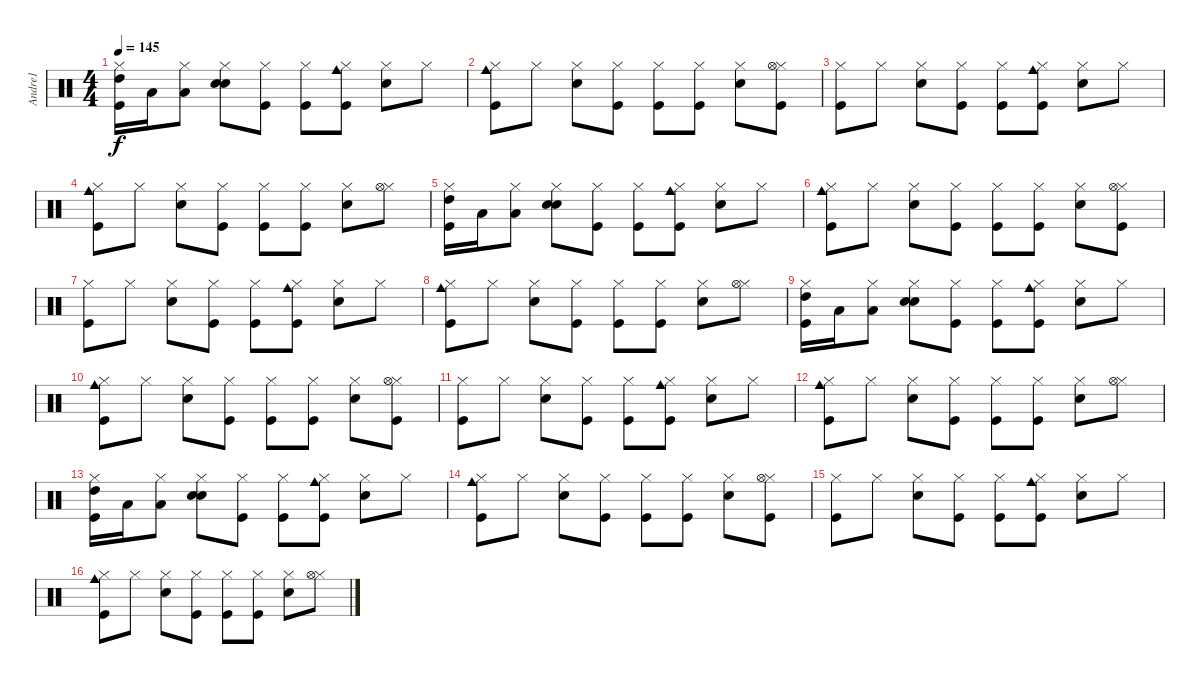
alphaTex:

\track ("Andre1" "Andre1") {instrument percussion}
\staff {score}
\articulation defaults
\ts (4 4)
\tempo 145
\clef neutral
\ks c
("Hi-Hat (closed)" "Kick (hit)" "High Tom (hit)").16{dy f} "Low Tom (hit)".16 ("Hi-Hat (closed)" "Low Floor Tom (hit)").8 ("Snare (hit) 2" "Hand Clap (hit)" "Hi-Hat (closed)").8 ("Hi-Hat (closed)" "Kick (hit)").8 ("Hi-Hat (closed)" "Kick (hit)").8 ("Kick (hit)" "Cowbell medium (hit)" "Hi-Hat (closed)").8 ("Hi-Hat (closed)" "Snare (hit) 2").8 "Hi-Hat (closed)".8 |
("Kick (hit)" "Hi-Hat (closed)" "Cowbell medium (hit)").8 "Hi-Hat (closed)".8 ("Snare (hit) 2" "Hi-Hat (closed)").8 ("Hi-Hat (closed)" "Kick (hit)").8 ("Hi-Hat (closed)" "Kick (hit)").8 ("Kick (hit)" "Hi-Hat (closed)").8 ("Hi-Hat (closed)" "Snare (hit) 2").8 ("Hi-Hat (closed)" "Kick (hit)" "Hi-Hat (open)").8 |
("Kick (hit)" "Hi-Hat (closed)").8 "Hi-Hat (closed)".8 ("Snare (hit) 2" "Hi-Hat (closed)").8 ("Hi-Hat (closed)" "Kick (hit)").8 ("Hi-Hat (closed)" "Kick (hit)").8 ("Cowbell medium (hit)" "Kick (hit)" "Hi-Hat (closed)").8 ("Hi-Hat (closed)" "Snare (hit) 2").8 "Hi-Hat (closed)".8 |
("Kick (hit)" "Cowbell medium (hit)" "Hi-Hat (closed)").8 "Hi-Hat (closed)".8 ("Snare (hit) 2" "Hi-Hat (closed)").8 ("Hi-Hat (closed)" "Kick (hit)").8 ("Hi-Hat (closed)" "Kick (hit)").8 ("Kick (hit)" "Hi-Hat (closed)").8 ("Hi-Hat (closed)" "Snare (hit) 2").8 ("Hi-Hat (closed)" "Hi-Hat (open)").8 |
("Hi-Hat (closed)" "Kick (hit)" "High Tom (hit)").16 "Low Tom (hit)".16 ("Hi-Hat (closed)" "Low Floor Tom (hit)").8 ("Snare (hit) 2" "Hand Clap (hit)" "Hi-Hat (closed)").8 ("Hi-Hat (closed)" "Kick (hit)").8 ("Hi-Hat (closed)" "Kick (hit)").8 ("Kick (hit)" "Cowbell medium (hit)" "Hi-Hat (closed)").8 ("Hi-Hat (closed)" "Snare (hit) 2").8 "Hi-Hat (closed)".8 |
("Kick (hit)" "Hi-Hat (closed)" "Cowbell medium (hit)").8 "Hi-Hat (closed)".8 ("Snare (hit) 2" "Hi-Hat (closed)").8 ("Hi-Hat (closed)" "Kick (hit)").8 ("Hi-Hat (closed)" "Kick (hit)").8 ("Kick (hit)" "Hi-Hat (closed)").8 ("Hi-Hat (closed)" "Snare (hit) 2").8 ("Hi-Hat (closed)" "Kick (hit)" "Hi-Hat (open)").8 |
("Kick (hit)" "Hi-Hat (closed)").8 "Hi-Hat (closed)".8 ("Snare (hit) 2" "Hi-Hat (closed)").8 ("Hi-Hat (closed)" "Kick (hit)").8 ("Hi-Hat (closed)" "Kick (hit)").8 ("Cowbell medium (hit)" "Kick (hit)" "Hi-Hat (closed)").8 ("Hi-Hat (closed)" "Snare (hit) 2").8 "Hi-Hat (closed)".8 |
("Kick (hit)" "Cowbell medium (hit)" "Hi-Hat (closed)").8 "Hi-Hat (closed)".8 ("Snare (hit) 2" "Hi-Hat (closed)").8 ("Hi-Hat (closed)" "Kick (hit)").8 ("Hi-Hat (closed)" "Kick (hit)").8 ("Kick (hit)" "Hi-Hat (closed)").8 ("Hi-Hat (closed)" "Snare (hit) 2").8 ("Hi-Hat (closed)" "Hi-Hat (open)").8 |
("Hi-Hat (closed)" "Kick (hit)" "High Tom (hit)").16 "Low Tom (hit)".16 ("Hi-Hat (closed)" "Low Floor Tom (hit)").8 ("Snare (hit) 2" "Hand Clap (hit)" "Hi-Hat (closed)").8 ("Hi-Hat (closed)" "Kick (hit)").8 ("Hi-Hat (closed)" "Kick (hit)").8 ("Kick (hit)" "Cowbell medium (hit)" "Hi-Hat (closed)").8 ("Hi-Hat (closed)" "Snare (hit) 2").8 "Hi-Hat (closed)".8 |
("Kick (hit)" "Hi-Hat (closed)" "Cowbell medium (hit)").8 "Hi-Hat (closed)".8 ("Snare (hit) 2" "Hi-Hat (closed)").8 ("Hi-Hat (closed)" "Kick (hit)").8 ("Hi-Hat (closed)" "Kick (hit)").8 ("Kick (hit)" "Hi-Hat (closed)").8 ("Hi-Hat (closed)" "Snare (hit) 2").8 ("Hi-Hat (closed)" "Kick (hit)" "Hi-Hat (open)").8 |
("Kick (hit)" "Hi-Hat (closed)").8 "Hi-Hat (closed)".8 ("Snare (hit) 2" "Hi-Hat (closed)").8 ("Hi-Hat (closed)" "Kick (hit)").8 ("Hi-Hat (closed)" "Kick (hit)").8 ("Cowbell medium (hit)" "Kick (hit)" "Hi-Hat (closed)").8 ("Hi-Hat (closed)" "Snare (hit) 2").8 "Hi-Hat (closed)".8 |
("Kick (hit)" "Cowbell medium (hit)" "Hi-Hat (closed)").8 "Hi-Hat (closed)".8 ("Snare (hit) 2" "Hi-Hat (closed)").8 ("Hi-Hat (closed)" "Kick (hit)").8 ("Hi-Hat (closed)" "Kick (hit)").8 ("Kick (hit)" "Hi-Hat (closed)").8 ("Hi-Hat (closed)" "Snare (hit) 2").8 ("Hi-Hat (closed)" "Hi-Hat (open)").8 |
("Hi-Hat (closed)" "Kick (hit)" "High Tom (hit)").16 "Low Tom (hit)".16 ("Hi-Hat (closed)" "Low Floor Tom (hit)").8 ("Snare (hit) 2" "Hand Clap (hit)" "Hi-Hat (closed)").8 ("Hi-Hat (closed)" "Kick (hit)").8 ("Hi-Hat (closed)" "Kick (hit)").8 ("Kick (hit)" "Cowbell medium (hit)" "Hi-Hat (closed)").8 ("Hi-Hat (closed)" "Snare (hit) 2").8 "Hi-Hat (closed)".8 |
("Kick (hit)" "Hi-Hat (closed)" "Cowbell medium (hit)").8 "Hi-Hat (closed)".8 ("Snare (hit) 2" "Hi-Hat (closed)").8 ("Hi-Hat (closed)" "Kick (hit)").8 ("Hi-Hat (closed)" "Kick (hit)").8 ("Kick (hit)" "Hi-Hat (closed)").8 ("Hi-Hat (closed)" "Snare (hit) 2").8 ("Hi-Hat (closed)" "Kick (hit)" "Hi-Hat (open)").8 |
("Kick (hit)" "Hi-Hat (closed)").8 "Hi-Hat (closed)".8 ("Snare (hit) 2" "Hi-Hat (closed)").8 ("Hi-Hat (closed)" "Kick (hit)").8 ("Hi-Hat (closed)" "Kick (hit)").8 ("Cowbell medium (hit)" "Kick (hit)" "Hi-Hat (closed)").8 ("Hi-Hat (closed)" "Snare (hit) 2").8 "Hi-Hat (closed)".8 |
("Kick (hit)" "Cowbell medium (hit)" "Hi-Hat (closed)").8 "Hi-Hat (closed)".8 ("Snare (hit) 2" "Hi-Hat (closed)").8 ("Hi-Hat (closed)" "Kick (hit)").8 ("Hi-Hat (closed)" "Kick (hit)").8 ("Kick (hit)" "Hi-Hat (closed)").8 ("Hi-Hat (closed)" "Snare (hit) 2").8 ("Hi-Hat (closed)" "Hi-Hat (open)").8
